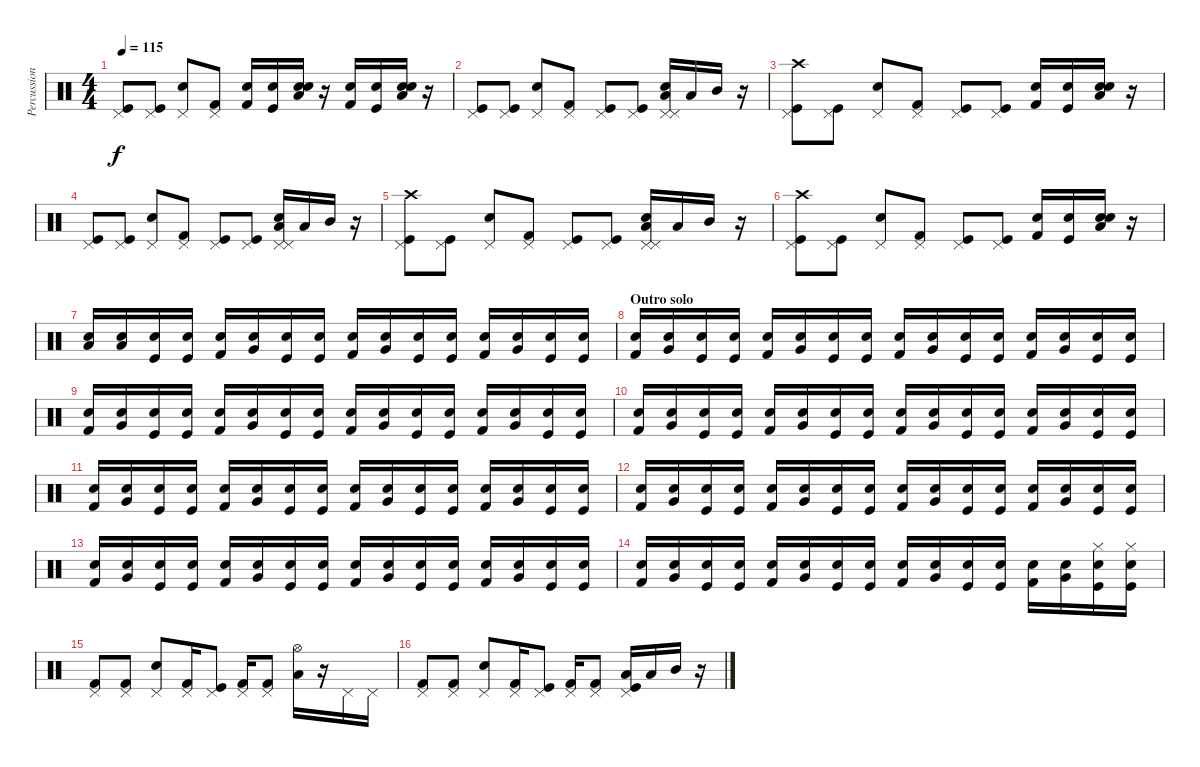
\track ("Percussions" "Percussion") {instrument percussion}
\staff {score}
\articulation defaults
\ts (4 4)
\tempo 115
\clef neutral
\ks c
("Kick (hit)" "Pedal Hi-Hat (hit)").8{dy f} ("Kick (hit)" "Pedal Hi-Hat (hit)").8 ("Snare (hit) 2" "Pedal Hi-Hat (hit)").8 ("Kick (hit) 2" "Pedal Hi-Hat (hit)").8 ("Kick (hit) 2" "Electric Snare (hit)").16 ("Kick (hit)" "Electric Snare (hit)").16 ("Snare (hit) 2" "Low Tom (hit)" "Electric Snare (hit)").16 r.16 ("Kick (hit) 2" "Electric Snare (hit)").16 ("Kick (hit)" "Electric Snare (hit)").16 ("Snare (hit) 2" "Low Tom (hit)" "Electric Snare (hit)").16 r.16 |
("Kick (hit)" "Pedal Hi-Hat (hit)").8 ("Kick (hit)" "Pedal Hi-Hat (hit)").8 ("Snare (hit) 2" "Pedal Hi-Hat (hit)").8 ("Kick (hit) 2" "Pedal Hi-Hat (hit)").8 ("Kick (hit)" "Pedal Hi-Hat (hit)").8 ("Kick (hit)" "Pedal Hi-Hat (hit)").8 ("Snare (hit) 2" "Pedal Hi-Hat (hit)" "Low Tom (hit)" "Pedal Hi-Hat (hit)").16 "Low Tom (hit)".16 "Mid Tom (hit)".16 r.16 |
("Kick (hit)" "Pedal Hi-Hat (hit)" "Crash high (hit)").8 ("Kick (hit)" "Pedal Hi-Hat (hit)").8 ("Snare (hit) 2" "Pedal Hi-Hat (hit)").8 ("Kick (hit) 2" "Pedal Hi-Hat (hit)").8 ("Kick (hit)" "Pedal Hi-Hat (hit)").8 ("Kick (hit)" "Pedal Hi-Hat (hit)").8 ("Kick (hit) 2" "Electric Snare (hit)").16 ("Kick (hit)" "Electric Snare (hit)").16 ("Snare (hit) 2" "Low Tom (hit)" "Electric Snare (hit)").16 r.16 |
("Kick (hit)" "Pedal Hi-Hat (hit)").8 ("Kick (hit)" "Pedal Hi-Hat (hit)").8 ("Snare (hit) 2" "Pedal Hi-Hat (hit)").8 ("Kick (hit) 2" "Pedal Hi-Hat (hit)").8 ("Kick (hit)" "Pedal Hi-Hat (hit)").8 ("Kick (hit)" "Pedal Hi-Hat (hit)").8 ("Snare (hit) 2" "Pedal Hi-Hat (hit)" "Low Tom (hit)" "Pedal Hi-Hat (hit)").16 "Low Tom (hit)".16 "Mid Tom (hit)".16 r.16 |
("Kick (hit)" "Pedal Hi-Hat (hit)" "Crash high (hit)").8 ("Kick (hit)" "Pedal Hi-Hat (hit)").8 ("Snare (hit) 2" "Pedal Hi-Hat (hit)").8 ("Kick (hit) 2" "Pedal Hi-Hat (hit)").8 ("Kick (hit)" "Pedal Hi-Hat (hit)").8 ("Kick (hit)" "Pedal Hi-Hat (hit)").8 ("Snare (hit) 2" "Pedal Hi-Hat (hit)" "Low Tom (hit)" "Pedal Hi-Hat (hit)").16 "Low Tom (hit)".16 "Mid Tom (hit)".16 r.16 |
("Kick (hit)" "Pedal Hi-Hat (hit)" "Crash high (hit)").8 ("Kick (hit)" "Pedal Hi-Hat (hit)").8 ("Snare (hit) 2" "Pedal Hi-Hat (hit)").8 ("Kick (hit) 2" "Pedal Hi-Hat (hit)").8 ("Kick (hit)" "Pedal Hi-Hat (hit)").8 ("Kick (hit)" "Pedal Hi-Hat (hit)").8 ("Kick (hit) 2" "Electric Snare (hit)").16 ("Kick (hit)" "Electric Snare (hit)").16 ("Snare (hit) 2" "Low Tom (hit)" "Electric Snare (hit)").16 r.16 |
("Low Tom (hit)" "Electric Snare (hit)").16 ("Low Tom (hit)" "Electric Snare (hit)").16 ("Kick (hit)" "Electric Snare (hit)").16 ("Kick (hit)" "Electric Snare (hit)").16 ("Kick (hit) 2" "Electric Snare (hit)").16 ("Very Low Tom (hit)" "Electric Snare (hit)").16 ("Kick (hit)" "Electric Snare (hit)").16 ("Kick (hit)" "Electric Snare (hit)").16 ("Kick (hit) 2" "Electric Snare (hit)").16 ("Very Low Tom (hit)" "Electric Snare (hit)").16 ("Kick (hit)" "Electric Snare (hit)").16 ("Kick (hit)" "Electric Snare (hit)").16 ("Kick (hit) 2" "Electric Snare (hit)").16 ("Very Low Tom (hit)" "Electric Snare (hit)").16 ("Kick (hit)" "Electric Snare (hit)").16 ("Kick (hit)" "Electric Snare (hit)").16 |
\section ("" "Outro solo")
("Kick (hit) 2" "Electric Snare (hit)").16 ("Very Low Tom (hit)" "Electric Snare (hit)").16 ("Kick (hit)" "Electric Snare (hit)").16 ("Kick (hit)" "Electric Snare (hit)").16 ("Kick (hit) 2" "Electric Snare (hit)").16 ("Very Low Tom (hit)" "Electric Snare (hit)").16 ("Kick (hit)" "Electric Snare (hit)").16 ("Kick (hit)" "Electric Snare (hit)").16 ("Kick (hit) 2" "Electric Snare (hit)").16 ("Very Low Tom (hit)" "Electric Snare (hit)").16 ("Kick (hit)" "Electric Snare (hit)").16 ("Kick (hit)" "Electric Snare (hit)").16 ("Kick (hit) 2" "Electric Snare (hit)").16 ("Very Low Tom (hit)" "Electric Snare (hit)").16 ("Kick (hit)" "Electric Snare (hit)").16 ("Kick (hit)" "Electric Snare (hit)").16 |
("Kick (hit) 2" "Electric Snare (hit)").16 ("Very Low Tom (hit)" "Electric Snare (hit)").16 ("Kick (hit)" "Electric Snare (hit)").16 ("Kick (hit)" "Electric Snare (hit)").16 ("Kick (hit) 2" "Electric Snare (hit)").16 ("Very Low Tom (hit)" "Electric Snare (hit)").16 ("Kick (hit)" "Electric Snare (hit)").16 ("Kick (hit)" "Electric Snare (hit)").16 ("Kick (hit) 2" "Electric Snare (hit)").16 ("Very Low Tom (hit)" "Electric Snare (hit)").16 ("Kick (hit)" "Electric Snare (hit)").16 ("Kick (hit)" "Electric Snare (hit)").16 ("Kick (hit) 2" "Electric Snare (hit)").16 ("Very Low Tom (hit)" "Electric Snare (hit)").16 ("Kick (hit)" "Electric Snare (hit)").16 ("Kick (hit)" "Electric Snare (hit)").16 |
("Kick (hit) 2" "Electric Snare (hit)").16 ("Very Low Tom (hit)" "Electric Snare (hit)").16 ("Kick (hit)" "Electric Snare (hit)").16 ("Kick (hit)" "Electric Snare (hit)").16 ("Kick (hit) 2" "Electric Snare (hit)").16 ("Very Low Tom (hit)" "Electric Snare (hit)").16 ("Kick (hit)" "Electric Snare (hit)").16 ("Kick (hit)" "Electric Snare (hit)").16 ("Kick (hit) 2" "Electric Snare (hit)").16 ("Very Low Tom (hit)" "Electric Snare (hit)").16 ("Kick (hit)" "Electric Snare (hit)").16 ("Kick (hit)" "Electric Snare (hit)").16 ("Kick (hit) 2" "Electric Snare (hit)").16 ("Very Low Tom (hit)" "Electric Snare (hit)").16 ("Kick (hit)" "Electric Snare (hit)").16 ("Kick (hit)" "Electric Snare (hit)").16 |
("Kick (hit) 2" "Electric Snare (hit)").16 ("Very Low Tom (hit)" "Electric Snare (hit)").16 ("Kick (hit)" "Electric Snare (hit)").16 ("Kick (hit)" "Electric Snare (hit)").16 ("Kick (hit) 2" "Electric Snare (hit)").16 ("Very Low Tom (hit)" "Electric Snare (hit)").16 ("Kick (hit)" "Electric Snare (hit)").16 ("Kick (hit)" "Electric Snare (hit)").16 ("Kick (hit) 2" "Electric Snare (hit)").16 ("Very Low Tom (hit)" "Electric Snare (hit)").16 ("Kick (hit)" "Electric Snare (hit)").16 ("Kick (hit)" "Electric Snare (hit)").16 ("Kick (hit) 2" "Electric Snare (hit)").16 ("Very Low Tom (hit)" "Electric Snare (hit)").16 ("Kick (hit)" "Electric Snare (hit)").16 ("Kick (hit)" "Electric Snare (hit)").16 |
("Kick (hit) 2" "Electric Snare (hit)").16 ("Very Low Tom (hit)" "Electric Snare (hit)").16 ("Kick (hit)" "Electric Snare (hit)").16 ("Kick (hit)" "Electric Snare (hit)").16 ("Kick (hit) 2" "Electric Snare (hit)").16 ("Very Low Tom (hit)" "Electric Snare (hit)").16 ("Kick (hit)" "Electric Snare (hit)").16 ("Kick (hit)" "Electric Snare (hit)").16 ("Kick (hit) 2" "Electric Snare (hit)").16 ("Very Low Tom (hit)" "Electric Snare (hit)").16 ("Kick (hit)" "Electric Snare (hit)").16 ("Kick (hit)" "Electric Snare (hit)").16 ("Kick (hit) 2" "Electric Snare (hit)").16 ("Very Low Tom (hit)" "Electric Snare (hit)").16 ("Kick (hit)" "Electric Snare (hit)").16 ("Kick (hit)" "Electric Snare (hit)").16 |
("Kick (hit) 2" "Electric Snare (hit)").16 ("Very Low Tom (hit)" "Electric Snare (hit)").16 ("Kick (hit)" "Electric Snare (hit)").16 ("Kick (hit)" "Electric Snare (hit)").16 ("Kick (hit) 2" "Electric Snare (hit)").16 ("Very Low Tom (hit)" "Electric Snare (hit)").16 ("Kick (hit)" "Electric Snare (hit)").16 ("Kick (hit)" "Electric Snare (hit)").16 ("Kick (hit) 2" "Electric Snare (hit)").16 ("Very Low Tom (hit)" "Electric Snare (hit)").16 ("Kick (hit)" "Electric Snare (hit)").16 ("Kick (hit)" "Electric Snare (hit)").16 ("Kick (hit) 2" "Electric Snare (hit)").16 ("Very Low Tom (hit)" "Electric Snare (hit)").16 ("Kick (hit)" "Electric Snare (hit)").16 ("Kick (hit)" "Electric Snare (hit)").16 |
("Kick (hit) 2" "Electric Snare (hit)").16 ("Very Low Tom (hit)" "Electric Snare (hit)").16 ("Kick (hit)" "Electric Snare (hit)").16 ("Kick (hit)" "Electric Snare (hit)").16 ("Kick (hit) 2" "Electric Snare (hit)").16 ("Very Low Tom (hit)" "Electric Snare (hit)").16 ("Kick (hit)" "Electric Snare (hit)").16 ("Kick (hit)" "Electric Snare (hit)").16 ("Kick (hit) 2" "Electric Snare (hit)").16 ("Very Low Tom (hit)" "Electric Snare (hit)").16 ("Kick (hit)" "Electric Snare (hit)").16 ("Kick (hit)" "Electric Snare (hit)").16 ("Kick (hit) 2" "Electric Snare (hit)").16 ("Very Low Tom (hit)" "Electric Snare (hit)").16 ("Kick (hit)" "Electric Snare (hit)" "Hi-Hat (closed)").16 ("Kick (hit)" "Electric Snare (hit)" "Hi-Hat (closed)").16 |
("Kick (hit) 2" "Pedal Hi-Hat (hit)").8{volume 16} ("Kick (hit) 2" "Pedal Hi-Hat (hit)").8 ("Snare (hit) 2" "Pedal Hi-Hat (hit)").8 ("Kick (hit) 2" "Pedal Hi-Hat (hit)").16 ("Kick (hit)" "Pedal Hi-Hat (hit)").8 ("Kick (hit) 2" "Pedal Hi-Hat (hit)").16 ("Kick (hit) 2" "Pedal Hi-Hat (hit)").8 ("Low Tom (hit)" "Hi-Hat (open)").16 r.16 "Pedal Hi-Hat (hit)".16 "Pedal Hi-Hat (hit)".16 |
("Kick (hit) 2" "Pedal Hi-Hat (hit)").8 ("Kick (hit) 2" "Pedal Hi-Hat (hit)").8 ("Snare (hit) 2" "Pedal Hi-Hat (hit)").8 ("Kick (hit) 2" "Pedal Hi-Hat (hit)").16 ("Kick (hit)" "Pedal Hi-Hat (hit)").8 ("Kick (hit) 2" "Pedal Hi-Hat (hit)").16 ("Kick (hit) 2" "Pedal Hi-Hat (hit)").8 ("Kick (hit)" "Pedal Hi-Hat (hit)" "Low Tom (hit)").16 "Low Tom (hit)".16 "Mid Tom (hit)".16 r.16
